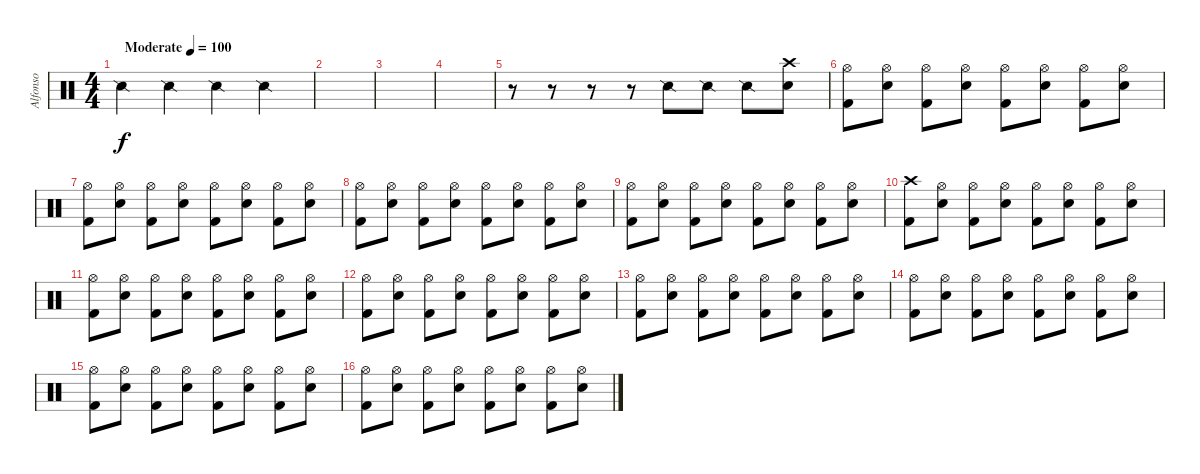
\track ("Alfonso" "Alfonso") {instrument percussion}
\staff {score}
\articulation defaults
\ts (4 4)
\tempo (100 "Moderate")
\clef neutral
\ks c "Snare (side stick) 2".4{dy f} "Snare (side stick) 2".4 "Snare (side stick) 2".4 "Snare (side stick) 2".4
|
|
|
|
r.8 r.8 r.8 r.8 "Snare (side stick) 2".8 "Snare (side stick) 2".8 "Snare (side stick) 2".8 ("Crash high (hit)" "Electric Snare (hit)").8 |
("Hi-Hat (open)" "Kick (hit) 2").8 ("Hi-Hat (open)" "Electric Snare (hit)").8 ("Hi-Hat (open)" "Kick (hit) 2").8 ("Hi-Hat (open)" "Electric Snare (hit)").8 ("Hi-Hat (open)" "Kick (hit) 2").8 ("Hi-Hat (open)" "Electric Snare (hit)").8 ("Hi-Hat (open)" "Kick (hit) 2").8 ("Hi-Hat (open)" "Electric Snare (hit)").8 |
("Hi-Hat (open)" "Kick (hit) 2").8 ("Hi-Hat (open)" "Electric Snare (hit)").8 ("Hi-Hat (open)" "Kick (hit) 2").8 ("Hi-Hat (open)" "Electric Snare (hit)").8 ("Hi-Hat (open)" "Kick (hit) 2").8 ("Hi-Hat (open)" "Electric Snare (hit)").8 ("Hi-Hat (open)" "Kick (hit) 2").8 ("Hi-Hat (open)" "Electric Snare (hit)").8 |
("Hi-Hat (open)" "Kick (hit) 2").8 ("Hi-Hat (open)" "Electric Snare (hit)").8 ("Hi-Hat (open)" "Kick (hit) 2").8 ("Hi-Hat (open)" "Electric Snare (hit)").8 ("Hi-Hat (open)" "Kick (hit) 2").8 ("Hi-Hat (open)" "Electric Snare (hit)").8 ("Hi-Hat (open)" "Kick (hit) 2").8 ("Hi-Hat (open)" "Electric Snare (hit)").8 |
("Hi-Hat (open)" "Kick (hit) 2").8 ("Hi-Hat (open)" "Electric Snare (hit)").8 ("Hi-Hat (open)" "Kick (hit) 2").8 ("Hi-Hat (open)" "Electric Snare (hit)").8 ("Hi-Hat (open)" "Kick (hit) 2").8 ("Hi-Hat (open)" "Electric Snare (hit)").8 ("Hi-Hat (open)" "Kick (hit) 2").8 ("Hi-Hat (open)" "Electric Snare (hit)").8 |
("Crash high (hit)" "Kick (hit) 2").8 ("Hi-Hat (open)" "Electric Snare (hit)").8 ("Hi-Hat (open)" "Kick (hit) 2").8 ("Hi-Hat (open)" "Electric Snare (hit)").8 ("Hi-Hat (open)" "Kick (hit) 2").8 ("Hi-Hat (open)" "Electric Snare (hit)").8 ("Hi-Hat (open)" "Kick (hit) 2").8 ("Hi-Hat (open)" "Electric Snare (hit)").8 |
("Hi-Hat (open)" "Kick (hit) 2").8 ("Hi-Hat (open)" "Electric Snare (hit)").8 ("Hi-Hat (open)" "Kick (hit) 2").8 ("Hi-Hat (open)" "Electric Snare (hit)").8 ("Hi-Hat (open)" "Kick (hit) 2").8 ("Hi-Hat (open)" "Electric Snare (hit)").8 ("Hi-Hat (open)" "Kick (hit) 2").8 ("Hi-Hat (open)" "Electric Snare (hit)").8 |
("Hi-Hat (open)" "Kick (hit) 2").8 ("Hi-Hat (open)" "Electric Snare (hit)").8 ("Hi-Hat (open)" "Kick (hit) 2").8 ("Hi-Hat (open)" "Electric Snare (hit)").8 ("Hi-Hat (open)" "Kick (hit) 2").8 ("Hi-Hat (open)" "Electric Snare (hit)").8 ("Hi-Hat (open)" "Kick (hit) 2").8 ("Hi-Hat (open)" "Electric Snare (hit)").8 |
("Hi-Hat (open)" "Kick (hit) 2").8 ("Hi-Hat (open)" "Electric Snare (hit)").8 ("Hi-Hat (open)" "Kick (hit) 2").8 ("Hi-Hat (open)" "Electric Snare (hit)").8 ("Hi-Hat (open)" "Kick (hit) 2").8 ("Hi-Hat (open)" "Electric Snare (hit)").8 ("Hi-Hat (open)" "Kick (hit) 2").8 ("Hi-Hat (open)" "Electric Snare (hit)").8 |
("Hi-Hat (open)" "Kick (hit) 2").8 ("Hi-Hat (open)" "Electric Snare (hit)").8 ("Hi-Hat (open)" "Kick (hit) 2").8 ("Hi-Hat (open)" "Electric Snare (hit)").8 ("Hi-Hat (open)" "Kick (hit) 2").8 ("Hi-Hat (open)" "Electric Snare (hit)").8 ("Hi-Hat (open)" "Kick (hit) 2").8 ("Hi-Hat (open)" "Electric Snare (hit)").8 |
("Hi-Hat (open)" "Kick (hit) 2").8 ("Hi-Hat (open)" "Electric Snare (hit)").8 ("Hi-Hat (open)" "Kick (hit) 2").8 ("Hi-Hat (open)" "Electric Snare (hit)").8 ("Hi-Hat (open)" "Kick (hit) 2").8 ("Hi-Hat (open)" "Electric Snare (hit)").8 ("Hi-Hat (open)" "Kick (hit) 2").8 ("Hi-Hat (open)" "Electric Snare (hit)").8 |
("Hi-Hat (open)" "Kick (hit) 2").8 ("Hi-Hat (open)" "Electric Snare (hit)").8 ("Hi-Hat (open)" "Kick (hit) 2").8 ("Hi-Hat (open)" "Electric Snare (hit)").8 ("Hi-Hat (open)" "Kick (hit) 2").8 ("Hi-Hat (open)" "Electric Snare (hit)").8 ("Hi-Hat (open)" "Kick (hit) 2").8 ("Hi-Hat (open)" "Electric Snare (hit)").8
